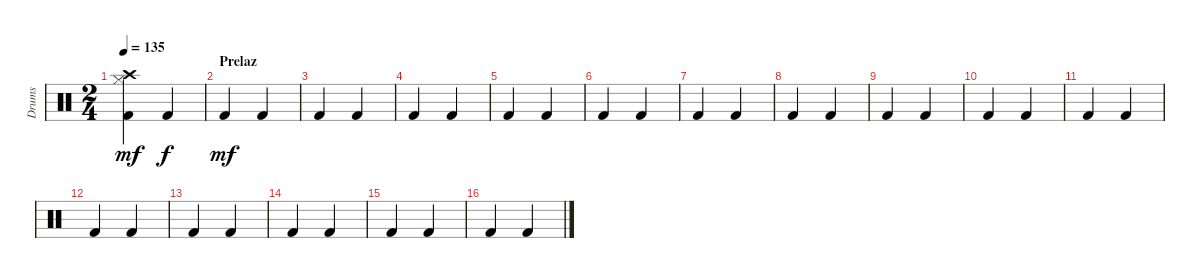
\track ("Drums" "Drums") {instrument percussion}
\staff {score}
\articulation defaults
\ts (2 4)
\tempo 135
\clef neutral
\ks c
("Hi-Hat (closed)" "Kick (hit) 2" "Crash high (hit)").4{dy mf} "Kick (hit) 2".4{dy f} |
\section ("" "Prelaz")
"Kick (hit) 2".4{dy mf} "Kick (hit) 2".4 |
"Kick (hit) 2".4 "Kick (hit) 2".4 |
"Kick (hit) 2".4 "Kick (hit) 2".4 |
"Kick (hit) 2".4 "Kick (hit) 2".4 |
"Kick (hit) 2".4 "Kick (hit) 2".4 |
"Kick (hit) 2".4 "Kick (hit) 2".4 |
"Kick (hit) 2".4 "Kick (hit) 2".4 |
"Kick (hit) 2".4 "Kick (hit) 2".4 |
"Kick (hit) 2".4 "Kick (hit) 2".4 |
"Kick (hit) 2".4 "Kick (hit) 2".4 |
"Kick (hit) 2".4 "Kick (hit) 2".4 |
"Kick (hit) 2".4 "Kick (hit) 2".4 |
"Kick (hit) 2".4 "Kick (hit) 2".4 |
"Kick (hit) 2".4 "Kick (hit) 2".4 |
"Kick (hit) 2".4 "Kick (hit) 2".4
